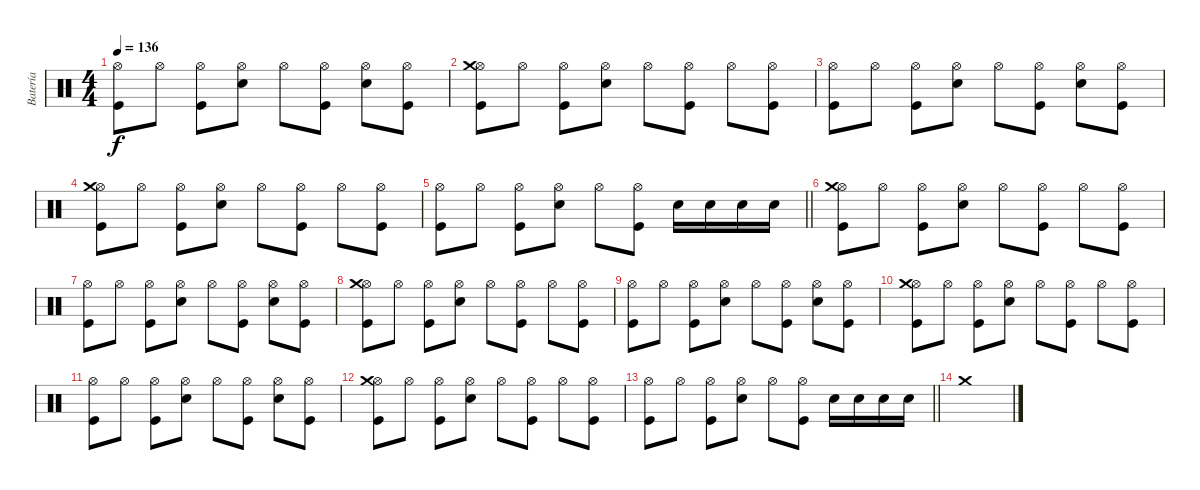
\track ("Batería" "Batería") {instrument percussion}
\staff {score}
\articulation defaults
\ts (4 4)
\tempo 136
\clef neutral
\ks c
("Hi-Hat (open)" "Kick (hit)").8{dy f} "Hi-Hat (open)".8 ("Hi-Hat (open)" "Kick (hit)").8 ("Hi-Hat (open)" "Snare (hit) 2").8 "Hi-Hat (open)".8 ("Hi-Hat (open)" "Kick (hit)").8 ("Hi-Hat (open)" "Snare (hit) 2").8 ("Hi-Hat (open)" "Kick (hit)").8 |
("Hi-Hat (open)" "Crash medium (hit)" "Kick (hit)").8 "Hi-Hat (open)".8 ("Hi-Hat (open)" "Kick (hit)").8 ("Hi-Hat (open)" "Snare (hit) 2").8 "Hi-Hat (open)".8 ("Hi-Hat (open)" "Kick (hit)").8 "Hi-Hat (open)".8 ("Hi-Hat (open)" "Kick (hit)").8 |
("Hi-Hat (open)" "Kick (hit)").8 "Hi-Hat (open)".8 ("Hi-Hat (open)" "Kick (hit)").8 ("Hi-Hat (open)" "Snare (hit) 2").8 "Hi-Hat (open)".8 ("Hi-Hat (open)" "Kick (hit)").8 ("Hi-Hat (open)" "Snare (hit) 2").8 ("Hi-Hat (open)" "Kick (hit)").8 |
("Hi-Hat (open)" "Crash medium (hit)" "Kick (hit)").8 "Hi-Hat (open)".8 ("Hi-Hat (open)" "Kick (hit)").8 ("Hi-Hat (open)" "Snare (hit) 2").8 "Hi-Hat (open)".8 ("Hi-Hat (open)" "Kick (hit)").8 "Hi-Hat (open)".8 ("Hi-Hat (open)" "Kick (hit)").8 |
\barLineRight lightlight
("Hi-Hat (open)" "Kick (hit)").8 "Hi-Hat (open)".8 ("Hi-Hat (open)" "Kick (hit)").8 ("Hi-Hat (open)" "Snare (hit) 2").8 "Hi-Hat (open)".8 ("Hi-Hat (open)" "Kick (hit)").8 "Snare (hit) 2".16 "Snare (hit) 2".16 "Snare (hit) 2".16 "Snare (hit) 2".16 |
("Hi-Hat (open)" "Crash medium (hit)" "Kick (hit)").8 "Hi-Hat (open)".8 ("Hi-Hat (open)" "Kick (hit)").8 ("Hi-Hat (open)" "Snare (hit) 2").8 "Hi-Hat (open)".8 ("Hi-Hat (open)" "Kick (hit)").8 "Hi-Hat (open)".8 ("Hi-Hat (open)" "Kick (hit)").8 |
("Hi-Hat (open)" "Kick (hit)").8 "Hi-Hat (open)".8 ("Hi-Hat (open)" "Kick (hit)").8 ("Hi-Hat (open)" "Snare (hit) 2").8 "Hi-Hat (open)".8 ("Hi-Hat (open)" "Kick (hit)").8 ("Hi-Hat (open)" "Snare (hit) 2").8 ("Hi-Hat (open)" "Kick (hit)").8 |
("Hi-Hat (open)" "Crash medium (hit)" "Kick (hit)").8 "Hi-Hat (open)".8 ("Hi-Hat (open)" "Kick (hit)").8 ("Hi-Hat (open)" "Snare (hit) 2").8 "Hi-Hat (open)".8 ("Hi-Hat (open)" "Kick (hit)").8 "Hi-Hat (open)".8 ("Hi-Hat (open)" "Kick (hit)").8 |
("Hi-Hat (open)" "Kick (hit)").8 "Hi-Hat (open)".8 ("Hi-Hat (open)" "Kick (hit)").8 ("Hi-Hat (open)" "Snare (hit) 2").8 "Hi-Hat (open)".8 ("Hi-Hat (open)" "Kick (hit)").8 ("Hi-Hat (open)" "Snare (hit) 2").8 ("Hi-Hat (open)" "Kick (hit)").8 |
("Hi-Hat (open)" "Crash medium (hit)" "Kick (hit)").8 "Hi-Hat (open)".8 ("Hi-Hat (open)" "Kick (hit)").8 ("Hi-Hat (open)" "Snare (hit) 2").8 "Hi-Hat (open)".8 ("Hi-Hat (open)" "Kick (hit)").8 "Hi-Hat (open)".8 ("Hi-Hat (open)" "Kick (hit)").8 |
("Hi-Hat (open)" "Kick (hit)").8 "Hi-Hat (open)".8 ("Hi-Hat (open)" "Kick (hit)").8 ("Hi-Hat (open)" "Snare (hit) 2").8 "Hi-Hat (open)".8 ("Hi-Hat (open)" "Kick (hit)").8 ("Hi-Hat (open)" "Snare (hit) 2").8 ("Hi-Hat (open)" "Kick (hit)").8 |
("Hi-Hat (open)" "Crash medium (hit)" "Kick (hit)").8 "Hi-Hat (open)".8 ("Hi-Hat (open)" "Kick (hit)").8 ("Hi-Hat (open)" "Snare (hit) 2").8 "Hi-Hat (open)".8 ("Hi-Hat (open)" "Kick (hit)").8 "Hi-Hat (open)".8 ("Hi-Hat (open)" "Kick (hit)").8 |
\barLineRight lightlight
("Hi-Hat (open)" "Kick (hit)").8 "Hi-Hat (open)".8 ("Hi-Hat (open)" "Kick (hit)").8 ("Hi-Hat (open)" "Snare (hit) 2").8 "Hi-Hat (open)".8 ("Hi-Hat (open)" "Kick (hit)").8 "Snare (hit) 2".16 "Snare (hit) 2".16 "Snare (hit) 2".16 "Snare (hit) 2".16 |
"Crash medium (hit)".1
